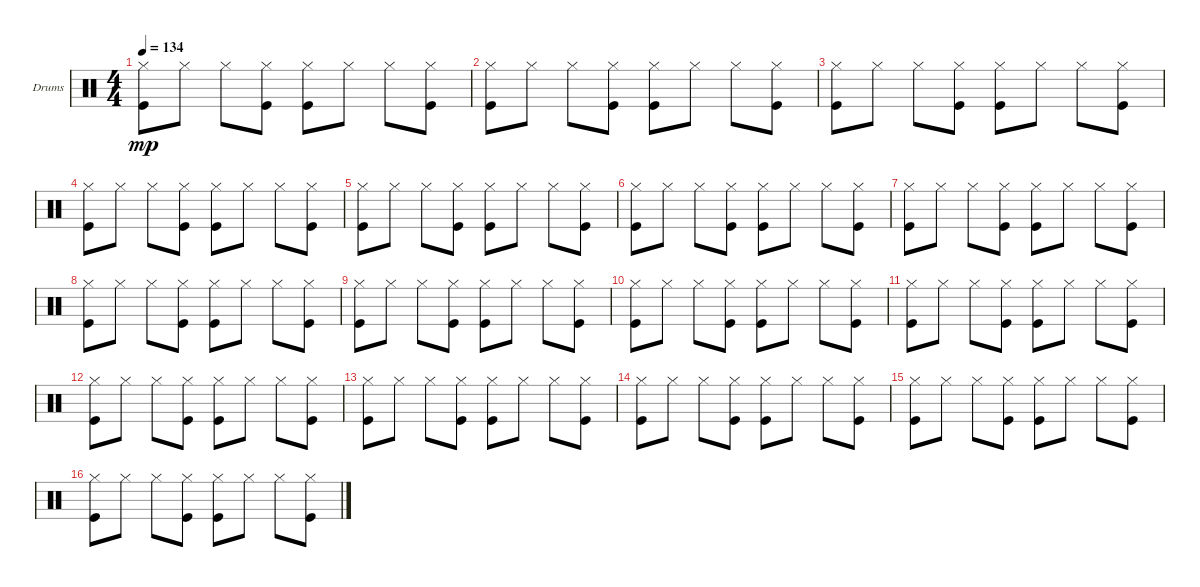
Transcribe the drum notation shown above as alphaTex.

\bracketExtendMode groupsimilarinstruments
\firstSystemTrackNameOrientation horizontal
\otherSystemsTrackNameOrientation horizontal
\track ("Drumkit" "Drums") {instrument percussion}
\staff {score}
\articulation defaults
\ts (4 4)
\scale
0.254768
\tempo 134
\accidentals auto
\clef neutral
\ottava regular
\simile none
\ks c
("Kick (hit)" "Hi-Hat (closed)").8{dy mp} "Hi-Hat (closed)".8 "Hi-Hat (closed)".8 ("Kick (hit)" "Hi-Hat (closed)").8 ("Kick (hit)" "Hi-Hat (closed)").8 "Hi-Hat (closed)".8 "Hi-Hat (closed)".8 ("Hi-Hat (closed)" "Kick (hit)").8 |
\scale
0.245232 ("Kick (hit)" "Hi-Hat (closed)").8 "Hi-Hat (closed)".8 "Hi-Hat (closed)".8 ("Kick (hit)" "Hi-Hat (closed)").8 ("Kick (hit)" "Hi-Hat (closed)").8 "Hi-Hat (closed)".8 "Hi-Hat (closed)".8 ("Hi-Hat (closed)" "Kick (hit)").8 |
\scale
0.254768 ("Kick (hit)" "Hi-Hat (closed)").8 "Hi-Hat (closed)".8 "Hi-Hat (closed)".8 ("Kick (hit)" "Hi-Hat (closed)").8 ("Kick (hit)" "Hi-Hat (closed)").8 "Hi-Hat (closed)".8 "Hi-Hat (closed)".8 ("Hi-Hat (closed)" "Kick (hit)").8 |
\scale
0.245232 ("Kick (hit)" "Hi-Hat (closed)").8 "Hi-Hat (closed)".8 "Hi-Hat (closed)".8 ("Kick (hit)" "Hi-Hat (closed)").8 ("Kick (hit)" "Hi-Hat (closed)").8 "Hi-Hat (closed)".8 "Hi-Hat (closed)".8 ("Hi-Hat (closed)" "Kick (hit)").8 |
\scale
0.254768 ("Kick (hit)" "Hi-Hat (closed)").8 "Hi-Hat (closed)".8 "Hi-Hat (closed)".8 ("Kick (hit)" "Hi-Hat (closed)").8 ("Kick (hit)" "Hi-Hat (closed)").8 "Hi-Hat (closed)".8 "Hi-Hat (closed)".8 ("Hi-Hat (closed)" "Kick (hit)").8 |
\scale
0.245232 ("Kick (hit)" "Hi-Hat (closed)").8 "Hi-Hat (closed)".8 "Hi-Hat (closed)".8 ("Kick (hit)" "Hi-Hat (closed)").8 ("Kick (hit)" "Hi-Hat (closed)").8 "Hi-Hat (closed)".8 "Hi-Hat (closed)".8 ("Hi-Hat (closed)" "Kick (hit)").8 |
\scale
0.254768 ("Kick (hit)" "Hi-Hat (closed)").8 "Hi-Hat (closed)".8 "Hi-Hat (closed)".8 ("Kick (hit)" "Hi-Hat (closed)").8 ("Kick (hit)" "Hi-Hat (closed)").8 "Hi-Hat (closed)".8 "Hi-Hat (closed)".8 ("Hi-Hat (closed)" "Kick (hit)").8 |
\scale
0.245232 ("Kick (hit)" "Hi-Hat (closed)").8 "Hi-Hat (closed)".8 "Hi-Hat (closed)".8 ("Kick (hit)" "Hi-Hat (closed)").8 ("Kick (hit)" "Hi-Hat (closed)").8 "Hi-Hat (closed)".8 "Hi-Hat (closed)".8 ("Hi-Hat (closed)" "Kick (hit)").8 |
\scale
0.254768 ("Kick (hit)" "Hi-Hat (closed)").8 "Hi-Hat (closed)".8 "Hi-Hat (closed)".8 ("Kick (hit)" "Hi-Hat (closed)").8 ("Kick (hit)" "Hi-Hat (closed)").8 "Hi-Hat (closed)".8 "Hi-Hat (closed)".8 ("Hi-Hat (closed)" "Kick (hit)").8 |
\scale
0.245232 ("Kick (hit)" "Hi-Hat (closed)").8 "Hi-Hat (closed)".8 "Hi-Hat (closed)".8 ("Kick (hit)" "Hi-Hat (closed)").8 ("Kick (hit)" "Hi-Hat (closed)").8 "Hi-Hat (closed)".8 "Hi-Hat (closed)".8 ("Hi-Hat (closed)" "Kick (hit)").8 |
("Kick (hit)" "Hi-Hat (closed)").8 "Hi-Hat (closed)".8 "Hi-Hat (closed)".8 ("Kick (hit)" "Hi-Hat (closed)").8 ("Kick (hit)" "Hi-Hat (closed)").8 "Hi-Hat (closed)".8 "Hi-Hat (closed)".8 ("Hi-Hat (closed)" "Kick (hit)").8 |
("Kick (hit)" "Hi-Hat (closed)").8 "Hi-Hat (closed)".8 "Hi-Hat (closed)".8 ("Kick (hit)" "Hi-Hat (closed)").8 ("Kick (hit)" "Hi-Hat (closed)").8 "Hi-Hat (closed)".8 "Hi-Hat (closed)".8 ("Hi-Hat (closed)" "Kick (hit)").8 |
("Kick (hit)" "Hi-Hat (closed)").8 "Hi-Hat (closed)".8 "Hi-Hat (closed)".8 ("Kick (hit)" "Hi-Hat (closed)").8 ("Kick (hit)" "Hi-Hat (closed)").8 "Hi-Hat (closed)".8 "Hi-Hat (closed)".8 ("Hi-Hat (closed)" "Kick (hit)").8 |
("Kick (hit)" "Hi-Hat (closed)").8 "Hi-Hat (closed)".8 "Hi-Hat (closed)".8 ("Kick (hit)" "Hi-Hat (closed)").8 ("Kick (hit)" "Hi-Hat (closed)").8 "Hi-Hat (closed)".8 "Hi-Hat (closed)".8 ("Hi-Hat (closed)" "Kick (hit)").8 |
("Kick (hit)" "Hi-Hat (closed)").8 "Hi-Hat (closed)".8 "Hi-Hat (closed)".8 ("Kick (hit)" "Hi-Hat (closed)").8 ("Kick (hit)" "Hi-Hat (closed)").8 "Hi-Hat (closed)".8 "Hi-Hat (closed)".8 ("Hi-Hat (closed)" "Kick (hit)").8 |
("Kick (hit)" "Hi-Hat (closed)").8 "Hi-Hat (closed)".8 "Hi-Hat (closed)".8 ("Kick (hit)" "Hi-Hat (closed)").8 ("Kick (hit)" "Hi-Hat (closed)").8 "Hi-Hat (closed)".8 "Hi-Hat (closed)".8 ("Hi-Hat (closed)" "Kick (hit)").8
